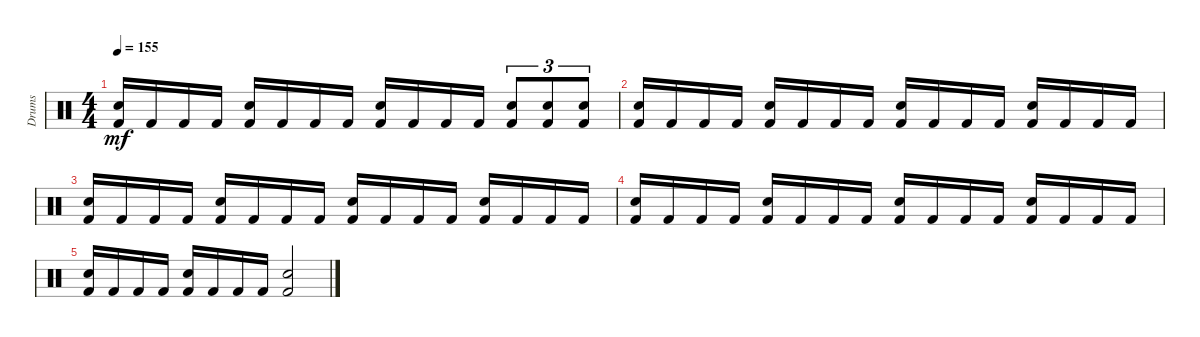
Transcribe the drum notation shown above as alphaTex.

\track ("Drums" "Drums") {instrument percussion}
\staff {score}
\articulation defaults
\ts (4 4)
\tempo 155
\clef neutral
\ks c
("Kick (hit) 2" "Snare (hit) 2").16{dy mf} "Kick (hit) 2".16 "Kick (hit) 2".16 "Kick (hit) 2".16 ("Kick (hit) 2" "Snare (hit) 2").16 "Kick (hit) 2".16 "Kick (hit) 2".16 "Kick (hit) 2".16 ("Kick (hit) 2" "Snare (hit) 2").16 "Kick (hit) 2".16 "Kick (hit) 2".16 "Kick (hit) 2".16 ("Kick (hit) 2" "Snare (hit) 2").8{tu (3 2)} ("Kick (hit) 2" "Snare (hit) 2").8{tu (3 2)} ("Kick (hit) 2" "Snare (hit) 2").8{tu (3 2)} |
("Kick (hit) 2" "Snare (hit) 2").16 "Kick (hit) 2".16 "Kick (hit) 2".16 "Kick (hit) 2".16 ("Kick (hit) 2" "Snare (hit) 2").16 "Kick (hit) 2".16 "Kick (hit) 2".16 "Kick (hit) 2".16 ("Kick (hit) 2" "Snare (hit) 2").16 "Kick (hit) 2".16 "Kick (hit) 2".16 "Kick (hit) 2".16 ("Kick (hit) 2" "Snare (hit) 2").16 "Kick (hit) 2".16 "Kick (hit) 2".16 "Kick (hit) 2".16 |
("Kick (hit) 2" "Snare (hit) 2").16 "Kick (hit) 2".16 "Kick (hit) 2".16 "Kick (hit) 2".16 ("Kick (hit) 2" "Snare (hit) 2").16 "Kick (hit) 2".16 "Kick (hit) 2".16 "Kick (hit) 2".16 ("Kick (hit) 2" "Snare (hit) 2").16 "Kick (hit) 2".16 "Kick (hit) 2".16 "Kick (hit) 2".16 ("Kick (hit) 2" "Snare (hit) 2").16 "Kick (hit) 2".16 "Kick (hit) 2".16 "Kick (hit) 2".16 |
("Kick (hit) 2" "Snare (hit) 2").16 "Kick (hit) 2".16 "Kick (hit) 2".16 "Kick (hit) 2".16 ("Kick (hit) 2" "Snare (hit) 2").16 "Kick (hit) 2".16 "Kick (hit) 2".16 "Kick (hit) 2".16 ("Kick (hit) 2" "Snare (hit) 2").16 "Kick (hit) 2".16 "Kick (hit) 2".16 "Kick (hit) 2".16 ("Kick (hit) 2" "Snare (hit) 2").16 "Kick (hit) 2".16 "Kick (hit) 2".16 "Kick (hit) 2".16 |
("Kick (hit) 2" "Snare (hit) 2").16 "Kick (hit) 2".16 "Kick (hit) 2".16 "Kick (hit) 2".16 ("Kick (hit) 2" "Snare (hit) 2").16 "Kick (hit) 2".16 "Kick (hit) 2".16 "Kick (hit) 2".16 ("Kick (hit) 2" "Snare (hit) 2").2
